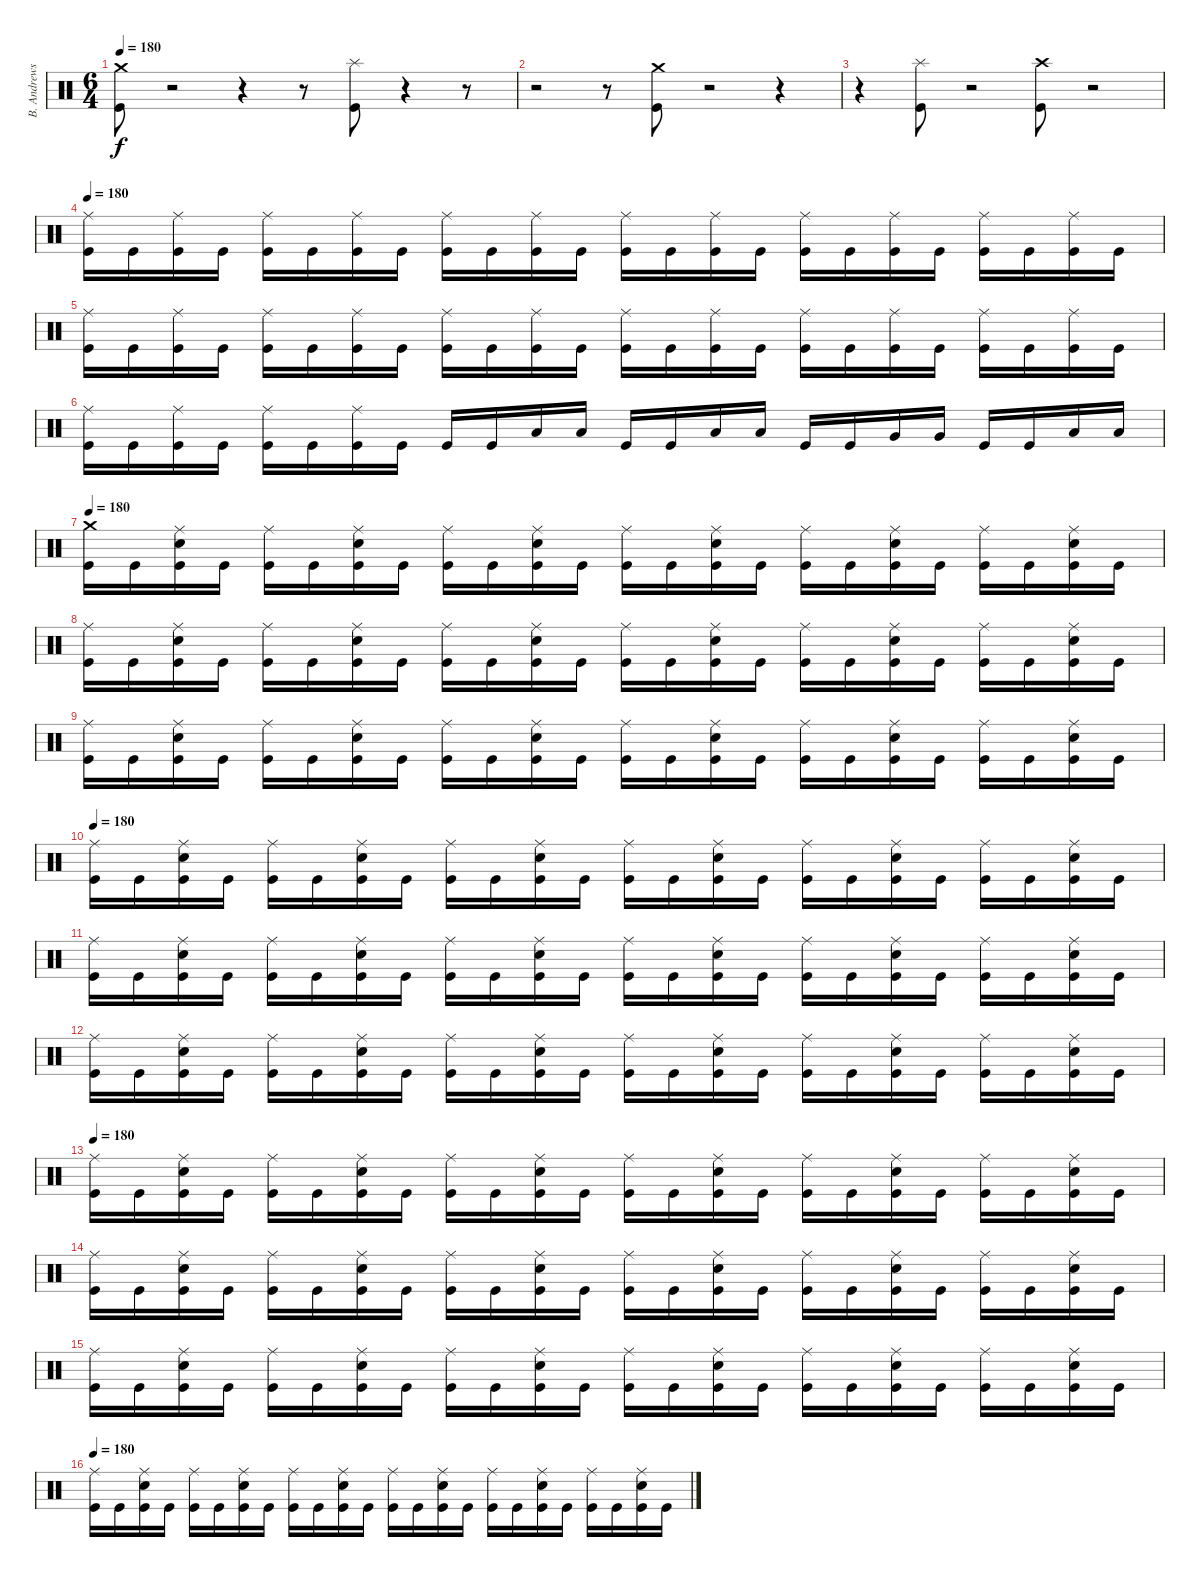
\track ("B. Andrews" "B. Andrews") {instrument percussion}
\staff {score}
\articulation defaults
\ts (6 4)
\tempo 200
\tempo 180
\clef neutral
\ks c
("Crash medium (hit)" "Kick (hit)").8{dy f} r.2 r.4 r.8 ("Splash (hit)" "Kick (hit)").8 r.4 r.8 |
r.2 r.8 ("Crash medium (hit)" "Kick (hit)").8 r.2 r.4 |
r.4 ("Splash (hit)" "Kick (hit)").8 r.2 ("Crash high (hit)" "Kick (hit)").8 r.2 |
\tempo 180
("Ride (middle)" "Kick (hit)").16 "Kick (hit)".16 ("Ride (middle)" "Kick (hit)").16 "Kick (hit)".16 ("Ride (middle)" "Kick (hit)").16 "Kick (hit)".16 ("Ride (middle)" "Kick (hit)").16 "Kick (hit)".16 ("Ride (middle)" "Kick (hit)").16 "Kick (hit)".16 ("Ride (middle)" "Kick (hit)").16 "Kick (hit)".16 ("Ride (middle)" "Kick (hit)").16 "Kick (hit)".16 ("Ride (middle)" "Kick (hit)").16 "Kick (hit)".16 ("Ride (middle)" "Kick (hit)").16 "Kick (hit)".16 ("Ride (middle)" "Kick (hit)").16 "Kick (hit)".16 ("Ride (middle)" "Kick (hit)").16 "Kick (hit)".16 ("Ride (middle)" "Kick (hit)").16 "Kick (hit)".16 |
("Ride (middle)" "Kick (hit)").16 "Kick (hit)".16 ("Ride (middle)" "Kick (hit)").16 "Kick (hit)".16 ("Ride (middle)" "Kick (hit)").16 "Kick (hit)".16 ("Ride (middle)" "Kick (hit)").16 "Kick (hit)".16 ("Ride (middle)" "Kick (hit)").16 "Kick (hit)".16 ("Ride (middle)" "Kick (hit)").16 "Kick (hit)".16 ("Ride (middle)" "Kick (hit)").16 "Kick (hit)".16 ("Ride (middle)" "Kick (hit)").16 "Kick (hit)".16 ("Ride (middle)" "Kick (hit)").16 "Kick (hit)".16 ("Ride (middle)" "Kick (hit)").16 "Kick (hit)".16 ("Ride (middle)" "Kick (hit)").16 "Kick (hit)".16 ("Ride (middle)" "Kick (hit)").16 "Kick (hit)".16 |
("Ride (middle)" "Kick (hit)").16 "Kick (hit)".16 ("Ride (middle)" "Kick (hit)").16 "Kick (hit)".16 ("Ride (middle)" "Kick (hit)").16 "Kick (hit)".16 ("Ride (middle)" "Kick (hit)").16 "Kick (hit)".16 "Kick (hit)".16 "Kick (hit)".16 "Low Tom (hit)".16 "Low Tom (hit)".16 "Kick (hit)".16 "Kick (hit)".16 "Low Tom (hit)".16 "Low Tom (hit)".16 "Kick (hit)".16 "Kick (hit)".16 "Very Low Tom (hit)".16 "Very Low Tom (hit)".16 "Kick (hit)".16 "Kick (hit)".16 "Low Floor Tom (hit)".16 "Low Floor Tom (hit)".16 |
\tempo 180
("Crash medium (hit)" "Kick (hit)").16 "Kick (hit)".16 ("Ride (middle)" "Electric Snare (hit)" "Kick (hit)").16 "Kick (hit)".16 ("Ride (middle)" "Kick (hit)").16 "Kick (hit)".16 ("Ride (middle)" "Electric Snare (hit)" "Kick (hit)").16 "Kick (hit)".16 ("Ride (middle)" "Kick (hit)").16 "Kick (hit)".16 ("Ride (middle)" "Electric Snare (hit)" "Kick (hit)").16 "Kick (hit)".16 ("Ride (middle)" "Kick (hit)").16 "Kick (hit)".16 ("Ride (middle)" "Electric Snare (hit)" "Kick (hit)").16 "Kick (hit)".16 ("Ride (middle)" "Kick (hit)").16 "Kick (hit)".16 ("Ride (middle)" "Electric Snare (hit)" "Kick (hit)").16 "Kick (hit)".16 ("Ride (middle)" "Kick (hit)").16 "Kick (hit)".16 ("Ride (middle)" "Electric Snare (hit)" "Kick (hit)").16 "Kick (hit)".16 |
("Ride (middle)" "Kick (hit)").16 "Kick (hit)".16 ("Ride (middle)" "Electric Snare (hit)" "Kick (hit)").16 "Kick (hit)".16 ("Ride (middle)" "Kick (hit)").16 "Kick (hit)".16 ("Ride (middle)" "Electric Snare (hit)" "Kick (hit)").16 "Kick (hit)".16 ("Ride (middle)" "Kick (hit)").16 "Kick (hit)".16 ("Ride (middle)" "Electric Snare (hit)" "Kick (hit)").16 "Kick (hit)".16 ("Ride (middle)" "Kick (hit)").16 "Kick (hit)".16 ("Ride (middle)" "Electric Snare (hit)" "Kick (hit)").16 "Kick (hit)".16 ("Ride (middle)" "Kick (hit)").16 "Kick (hit)".16 ("Ride (middle)" "Electric Snare (hit)" "Kick (hit)").16 "Kick (hit)".16 ("Ride (middle)" "Kick (hit)").16 "Kick (hit)".16 ("Ride (middle)" "Electric Snare (hit)" "Kick (hit)").16 "Kick (hit)".16 |
("Ride (middle)" "Kick (hit)").16 "Kick (hit)".16 ("Ride (middle)" "Electric Snare (hit)" "Kick (hit)").16 "Kick (hit)".16 ("Ride (middle)" "Kick (hit)").16 "Kick (hit)".16 ("Ride (middle)" "Electric Snare (hit)" "Kick (hit)").16 "Kick (hit)".16 ("Ride (middle)" "Kick (hit)").16 "Kick (hit)".16 ("Ride (middle)" "Electric Snare (hit)" "Kick (hit)").16 "Kick (hit)".16 ("Ride (middle)" "Kick (hit)").16 "Kick (hit)".16 ("Ride (middle)" "Electric Snare (hit)" "Kick (hit)").16 "Kick (hit)".16 ("Ride (middle)" "Kick (hit)").16 "Kick (hit)".16 ("Ride (middle)" "Electric Snare (hit)" "Kick (hit)").16 "Kick (hit)".16 ("Ride (middle)" "Kick (hit)").16 "Kick (hit)".16 ("Ride (middle)" "Electric Snare (hit)" "Kick (hit)").16 "Kick (hit)".16 |
\tempo 180
("Ride (middle)" "Kick (hit)").16 "Kick (hit)".16 ("Ride (middle)" "Electric Snare (hit)" "Kick (hit)").16 "Kick (hit)".16 ("Ride (middle)" "Kick (hit)").16 "Kick (hit)".16 ("Ride (middle)" "Electric Snare (hit)" "Kick (hit)").16 "Kick (hit)".16 ("Ride (middle)" "Kick (hit)").16 "Kick (hit)".16 ("Ride (middle)" "Electric Snare (hit)" "Kick (hit)").16 "Kick (hit)".16 ("Ride (middle)" "Kick (hit)").16 "Kick (hit)".16 ("Ride (middle)" "Electric Snare (hit)" "Kick (hit)").16 "Kick (hit)".16 ("Ride (middle)" "Kick (hit)").16 "Kick (hit)".16 ("Ride (middle)" "Electric Snare (hit)" "Kick (hit)").16 "Kick (hit)".16 ("Ride (middle)" "Kick (hit)").16 "Kick (hit)".16 ("Ride (middle)" "Electric Snare (hit)" "Kick (hit)").16 "Kick (hit)".16 |
("Ride (middle)" "Kick (hit)").16 "Kick (hit)".16 ("Ride (middle)" "Electric Snare (hit)" "Kick (hit)").16 "Kick (hit)".16 ("Ride (middle)" "Kick (hit)").16 "Kick (hit)".16 ("Ride (middle)" "Electric Snare (hit)" "Kick (hit)").16 "Kick (hit)".16 ("Ride (middle)" "Kick (hit)").16 "Kick (hit)".16 ("Ride (middle)" "Electric Snare (hit)" "Kick (hit)").16 "Kick (hit)".16 ("Ride (middle)" "Kick (hit)").16 "Kick (hit)".16 ("Ride (middle)" "Electric Snare (hit)" "Kick (hit)").16 "Kick (hit)".16 ("Ride (middle)" "Kick (hit)").16 "Kick (hit)".16 ("Ride (middle)" "Electric Snare (hit)" "Kick (hit)").16 "Kick (hit)".16 ("Ride (middle)" "Kick (hit)").16 "Kick (hit)".16 ("Ride (middle)" "Electric Snare (hit)" "Kick (hit)").16 "Kick (hit)".16 |
("Ride (middle)" "Kick (hit)").16 "Kick (hit)".16 ("Ride (middle)" "Electric Snare (hit)" "Kick (hit)").16 "Kick (hit)".16 ("Ride (middle)" "Kick (hit)").16 "Kick (hit)".16 ("Ride (middle)" "Electric Snare (hit)" "Kick (hit)").16 "Kick (hit)".16 ("Ride (middle)" "Kick (hit)").16 "Kick (hit)".16 ("Ride (middle)" "Electric Snare (hit)" "Kick (hit)").16 "Kick (hit)".16 ("Ride (middle)" "Kick (hit)").16 "Kick (hit)".16 ("Ride (middle)" "Electric Snare (hit)" "Kick (hit)").16 "Kick (hit)".16 ("Ride (middle)" "Kick (hit)").16 "Kick (hit)".16 ("Ride (middle)" "Electric Snare (hit)" "Kick (hit)").16 "Kick (hit)".16 ("Ride (middle)" "Kick (hit)").16 "Kick (hit)".16 ("Ride (middle)" "Electric Snare (hit)" "Kick (hit)").16 "Kick (hit)".16 |
\tempo 180
("Ride (middle)" "Kick (hit)").16 "Kick (hit)".16 ("Ride (middle)" "Electric Snare (hit)" "Kick (hit)").16 "Kick (hit)".16 ("Ride (middle)" "Kick (hit)").16 "Kick (hit)".16 ("Ride (middle)" "Electric Snare (hit)" "Kick (hit)").16 "Kick (hit)".16 ("Ride (middle)" "Kick (hit)").16 "Kick (hit)".16 ("Ride (middle)" "Electric Snare (hit)" "Kick (hit)").16 "Kick (hit)".16 ("Ride (middle)" "Kick (hit)").16 "Kick (hit)".16 ("Ride (middle)" "Electric Snare (hit)" "Kick (hit)").16 "Kick (hit)".16 ("Ride (middle)" "Kick (hit)").16 "Kick (hit)".16 ("Ride (middle)" "Electric Snare (hit)" "Kick (hit)").16 "Kick (hit)".16 ("Ride (middle)" "Kick (hit)").16 "Kick (hit)".16 ("Ride (middle)" "Electric Snare (hit)" "Kick (hit)").16 "Kick (hit)".16 |
("Ride (middle)" "Kick (hit)").16 "Kick (hit)".16 ("Ride (middle)" "Electric Snare (hit)" "Kick (hit)").16 "Kick (hit)".16 ("Ride (middle)" "Kick (hit)").16 "Kick (hit)".16 ("Ride (middle)" "Electric Snare (hit)" "Kick (hit)").16 "Kick (hit)".16 ("Ride (middle)" "Kick (hit)").16 "Kick (hit)".16 ("Ride (middle)" "Electric Snare (hit)" "Kick (hit)").16 "Kick (hit)".16 ("Ride (middle)" "Kick (hit)").16 "Kick (hit)".16 ("Ride (middle)" "Electric Snare (hit)" "Kick (hit)").16 "Kick (hit)".16 ("Ride (middle)" "Kick (hit)").16 "Kick (hit)".16 ("Ride (middle)" "Electric Snare (hit)" "Kick (hit)").16 "Kick (hit)".16 ("Ride (middle)" "Kick (hit)").16 "Kick (hit)".16 ("Ride (middle)" "Electric Snare (hit)" "Kick (hit)").16 "Kick (hit)".16 |
("Ride (middle)" "Kick (hit)").16 "Kick (hit)".16 ("Ride (middle)" "Electric Snare (hit)" "Kick (hit)").16 "Kick (hit)".16 ("Ride (middle)" "Kick (hit)").16 "Kick (hit)".16 ("Ride (middle)" "Electric Snare (hit)" "Kick (hit)").16 "Kick (hit)".16 ("Ride (middle)" "Kick (hit)").16 "Kick (hit)".16 ("Ride (middle)" "Electric Snare (hit)" "Kick (hit)").16 "Kick (hit)".16 ("Ride (middle)" "Kick (hit)").16 "Kick (hit)".16 ("Ride (middle)" "Electric Snare (hit)" "Kick (hit)").16 "Kick (hit)".16 ("Ride (middle)" "Kick (hit)").16 "Kick (hit)".16 ("Ride (middle)" "Electric Snare (hit)" "Kick (hit)").16 "Kick (hit)".16 ("Ride (middle)" "Kick (hit)").16 "Kick (hit)".16 ("Ride (middle)" "Electric Snare (hit)" "Kick (hit)").16 "Kick (hit)".16 |
\tempo 180
("Ride (middle)" "Kick (hit)").16 "Kick (hit)".16 ("Ride (middle)" "Electric Snare (hit)" "Kick (hit)").16 "Kick (hit)".16 ("Ride (middle)" "Kick (hit)").16 "Kick (hit)".16 ("Ride (middle)" "Electric Snare (hit)" "Kick (hit)").16 "Kick (hit)".16 ("Ride (middle)" "Kick (hit)").16 "Kick (hit)".16 ("Ride (middle)" "Electric Snare (hit)" "Kick (hit)").16 "Kick (hit)".16 ("Ride (middle)" "Kick (hit)").16 "Kick (hit)".16 ("Ride (middle)" "Electric Snare (hit)" "Kick (hit)").16 "Kick (hit)".16 ("Ride (middle)" "Kick (hit)").16 "Kick (hit)".16 ("Ride (middle)" "Electric Snare (hit)" "Kick (hit)").16 "Kick (hit)".16 ("Ride (middle)" "Kick (hit)").16 "Kick (hit)".16 ("Ride (middle)" "Electric Snare (hit)" "Kick (hit)").16 "Kick (hit)".16
